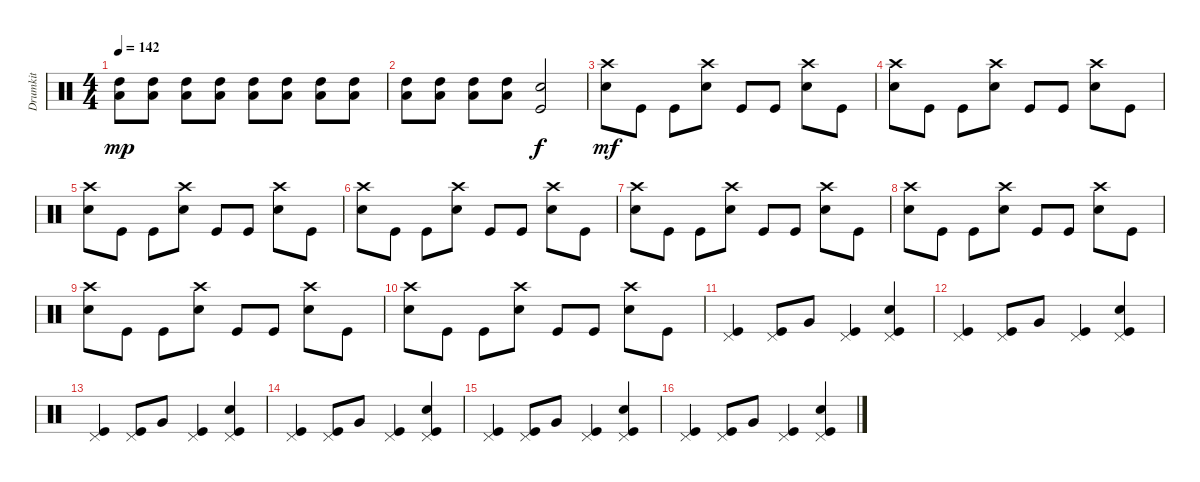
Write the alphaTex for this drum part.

\track ("Drumkit" "Drumkit") {instrument percussion}
\staff {score}
\articulation defaults
\ts (4 4)
\tempo 142
\clef neutral
\ks c
("Low Floor Tom (hit)" "High Tom (hit)").8{dy mp} ("Low Floor Tom (hit)" "High Tom (hit)").8 ("Low Floor Tom (hit)" "High Tom (hit)").8 ("Low Floor Tom (hit)" "High Tom (hit)").8 ("Low Floor Tom (hit)" "High Tom (hit)").8 ("Low Floor Tom (hit)" "High Tom (hit)").8 ("Low Floor Tom (hit)" "High Tom (hit)").8 ("Low Floor Tom (hit)" "High Tom (hit)").8 |
("Low Floor Tom (hit)" "High Tom (hit)").8 ("Low Floor Tom (hit)" "High Tom (hit)").8 ("Low Floor Tom (hit)" "High Tom (hit)").8 ("Low Floor Tom (hit)" "High Tom (hit)").8 ("Snare (hit) 2" "Kick (hit)").2{dy f} |
("Snare (hit) 2" "Crash high (hit)").8{dy mf} "Kick (hit)".8 "Kick (hit)".8 ("Snare (hit) 2" "Crash high (hit)").8 "Kick (hit)".8 "Kick (hit)".8 ("Snare (hit) 2" "Crash high (hit)").8 "Kick (hit)".8 |
("Snare (hit) 2" "Crash high (hit)").8 "Kick (hit)".8 "Kick (hit)".8 ("Snare (hit) 2" "Crash high (hit)").8 "Kick (hit)".8 "Kick (hit)".8 ("Snare (hit) 2" "Crash high (hit)").8 "Kick (hit)".8 |
("Snare (hit) 2" "Crash high (hit)").8 "Kick (hit)".8 "Kick (hit)".8 ("Snare (hit) 2" "Crash high (hit)").8 "Kick (hit)".8 "Kick (hit)".8 ("Snare (hit) 2" "Crash high (hit)").8 "Kick (hit)".8 |
("Snare (hit) 2" "Crash high (hit)").8 "Kick (hit)".8 "Kick (hit)".8 ("Snare (hit) 2" "Crash high (hit)").8 "Kick (hit)".8 "Kick (hit)".8 ("Snare (hit) 2" "Crash high (hit)").8 "Kick (hit)".8 |
("Snare (hit) 2" "Crash high (hit)").8 "Kick (hit)".8 "Kick (hit)".8 ("Snare (hit) 2" "Crash high (hit)").8 "Kick (hit)".8 "Kick (hit)".8 ("Snare (hit) 2" "Crash high (hit)").8 "Kick (hit)".8 |
("Snare (hit) 2" "Crash high (hit)").8 "Kick (hit)".8 "Kick (hit)".8 ("Snare (hit) 2" "Crash high (hit)").8 "Kick (hit)".8 "Kick (hit)".8 ("Snare (hit) 2" "Crash high (hit)").8 "Kick (hit)".8 |
("Snare (hit) 2" "Crash high (hit)").8 "Kick (hit)".8 "Kick (hit)".8 ("Snare (hit) 2" "Crash high (hit)").8 "Kick (hit)".8 "Kick (hit)".8 ("Snare (hit) 2" "Crash high (hit)").8 "Kick (hit)".8 |
("Snare (hit) 2" "Crash high (hit)").8 "Kick (hit)".8 "Kick (hit)".8 ("Snare (hit) 2" "Crash high (hit)").8 "Kick (hit)".8 "Kick (hit)".8 ("Snare (hit) 2" "Crash high (hit)").8 "Kick (hit)".8 |
("Kick (hit)" "Pedal Hi-Hat (hit)").4 ("Pedal Hi-Hat (hit)" "Kick (hit)").8 "Very Low Tom (hit)".8 ("Kick (hit)" "Pedal Hi-Hat (hit)").4 ("Snare (hit) 2" "Kick (hit)" "Pedal Hi-Hat (hit)").4 |
("Kick (hit)" "Pedal Hi-Hat (hit)").4 ("Pedal Hi-Hat (hit)" "Kick (hit)").8 "Very Low Tom (hit)".8 ("Kick (hit)" "Pedal Hi-Hat (hit)").4 ("Snare (hit) 2" "Kick (hit)" "Pedal Hi-Hat (hit)").4 |
("Kick (hit)" "Pedal Hi-Hat (hit)").4 ("Pedal Hi-Hat (hit)" "Kick (hit)").8 "Very Low Tom (hit)".8 ("Kick (hit)" "Pedal Hi-Hat (hit)").4 ("Snare (hit) 2" "Kick (hit)" "Pedal Hi-Hat (hit)").4 |
("Kick (hit)" "Pedal Hi-Hat (hit)").4 ("Pedal Hi-Hat (hit)" "Kick (hit)").8 "Very Low Tom (hit)".8 ("Kick (hit)" "Pedal Hi-Hat (hit)").4 ("Snare (hit) 2" "Kick (hit)" "Pedal Hi-Hat (hit)").4 |
("Kick (hit)" "Pedal Hi-Hat (hit)").4 ("Pedal Hi-Hat (hit)" "Kick (hit)").8 "Very Low Tom (hit)".8 ("Kick (hit)" "Pedal Hi-Hat (hit)").4 ("Snare (hit) 2" "Kick (hit)" "Pedal Hi-Hat (hit)").4 |
("Kick (hit)" "Pedal Hi-Hat (hit)").4 ("Pedal Hi-Hat (hit)" "Kick (hit)").8 "Very Low Tom (hit)".8 ("Kick (hit)" "Pedal Hi-Hat (hit)").4 ("Snare (hit) 2" "Kick (hit)" "Pedal Hi-Hat (hit)").4
